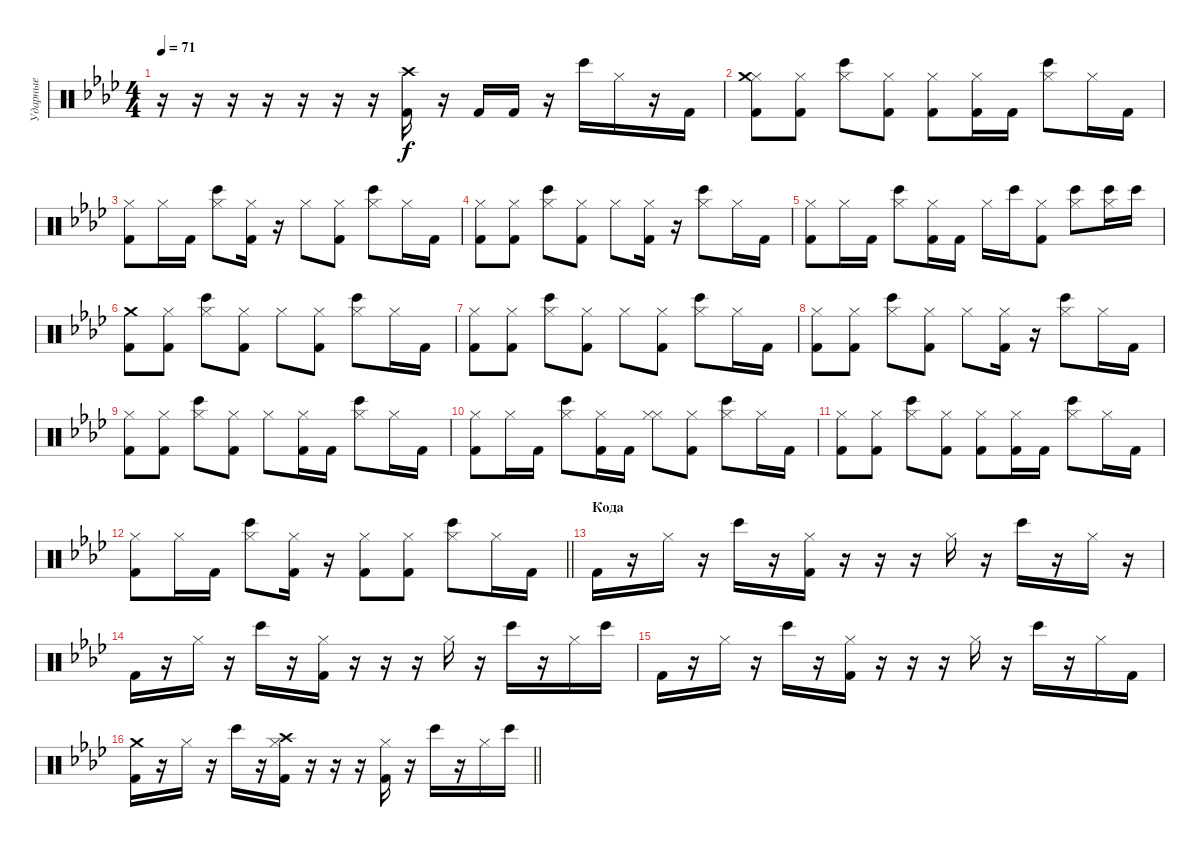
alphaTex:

\track ("Ударные" "Ударные") {instrument percussion}
\staff {score}
\articulation defaults
\ts (4 4)
\tempo 71
\clef neutral
\ks fminor
r.16{dy f} r.16 r.16 r.16 r.16 r.16 r.16 ("Crash high (hit)" "Kick (hit) 2").16 r.16 "Kick (hit) 2".16 "Kick (hit) 2".16 r.16 "Bongo High (hit)".16 "Hi-Hat (closed)".16 r.16 "Kick (hit) 2".16 |
("Hi-Hat (closed)" "Kick (hit) 2" "Crash medium (hit)").8 ("Hi-Hat (closed)" "Kick (hit) 2").8 ("Hi-Hat (closed)" "Bongo High (hit)").8 ("Hi-Hat (closed)" "Kick (hit) 2").8 ("Hi-Hat (closed)" "Kick (hit) 2").8 ("Hi-Hat (closed)" "Kick (hit) 2").16 "Kick (hit) 2".16 ("Hi-Hat (closed)" "Bongo High (hit)").8 "Hi-Hat (closed)".16 "Kick (hit) 2".16 |
("Hi-Hat (closed)" "Kick (hit) 2").8 "Hi-Hat (closed)".16 "Kick (hit) 2".16 ("Hi-Hat (closed)" "Bongo High (hit)").8 ("Hi-Hat (closed)" "Kick (hit) 2").16 r.16 "Hi-Hat (closed)".8 ("Hi-Hat (closed)" "Kick (hit) 2").8 ("Hi-Hat (closed)" "Bongo High (hit)").8 "Hi-Hat (closed)".16 "Kick (hit) 2".16 |
("Hi-Hat (closed)" "Kick (hit) 2").8 ("Hi-Hat (closed)" "Kick (hit) 2").8 ("Hi-Hat (closed)" "Bongo High (hit)").8 ("Hi-Hat (closed)" "Kick (hit) 2").8 "Hi-Hat (closed)".8 ("Hi-Hat (closed)" "Kick (hit) 2").16 r.16 ("Hi-Hat (closed)" "Bongo High (hit)").8 "Hi-Hat (closed)".16 "Kick (hit) 2".16 |
("Hi-Hat (closed)" "Kick (hit) 2").8 "Hi-Hat (closed)".16 "Kick (hit) 2".16 ("Hi-Hat (closed)" "Bongo High (hit)").8 ("Hi-Hat (closed)" "Kick (hit) 2").16 "Kick (hit) 2".16 "Hi-Hat (closed)".16 "Bongo High (hit)".16 ("Hi-Hat (closed)" "Kick (hit) 2").8 ("Hi-Hat (closed)" "Bongo High (hit)").8 ("Hi-Hat (closed)" "Bongo High (hit)").16 "Bongo High (hit)".16 |
("Crash medium (hit)" "Kick (hit) 2").8 ("Hi-Hat (closed)" "Kick (hit) 2").8 ("Hi-Hat (closed)" "Bongo High (hit)").8 ("Hi-Hat (closed)" "Kick (hit) 2").8 "Hi-Hat (closed)".8 ("Hi-Hat (closed)" "Kick (hit) 2").8 ("Hi-Hat (closed)" "Bongo High (hit)").8 "Hi-Hat (closed)".16 "Kick (hit) 2".16 |
("Hi-Hat (closed)" "Kick (hit) 2").8 ("Hi-Hat (closed)" "Kick (hit) 2").8 ("Hi-Hat (closed)" "Bongo High (hit)").8 ("Hi-Hat (closed)" "Kick (hit) 2").8 "Hi-Hat (closed)".8 ("Hi-Hat (closed)" "Kick (hit) 2").8 ("Hi-Hat (closed)" "Bongo High (hit)").8 "Hi-Hat (closed)".16 "Kick (hit) 2".16 |
("Hi-Hat (closed)" "Kick (hit) 2").8 ("Hi-Hat (closed)" "Kick (hit) 2").8 ("Hi-Hat (closed)" "Bongo High (hit)").8 ("Hi-Hat (closed)" "Kick (hit) 2").8 "Hi-Hat (closed)".8 ("Hi-Hat (closed)" "Kick (hit) 2").16 r.16 ("Hi-Hat (closed)" "Bongo High (hit)").8 "Hi-Hat (closed)".16 "Kick (hit) 2".16 |
("Hi-Hat (closed)" "Kick (hit) 2").8 ("Hi-Hat (closed)" "Kick (hit) 2").8 ("Hi-Hat (closed)" "Bongo High (hit)").8 ("Hi-Hat (closed)" "Kick (hit) 2").8 "Hi-Hat (closed)".8 ("Hi-Hat (closed)" "Kick (hit) 2").16 "Kick (hit) 2".16 ("Hi-Hat (closed)" "Bongo High (hit)").8 "Hi-Hat (closed)".16 "Kick (hit) 2".16 |
("Hi-Hat (closed)" "Kick (hit) 2").8 "Hi-Hat (closed)".16 "Kick (hit) 2".16 ("Hi-Hat (closed)" "Bongo High (hit)").8 ("Hi-Hat (closed)" "Kick (hit) 2").16 "Kick (hit) 2".16 ("Hi-Hat (closed)" "Hi-Hat (closed)").8 ("Hi-Hat (closed)" "Kick (hit) 2").8 ("Hi-Hat (closed)" "Bongo High (hit)").8 "Hi-Hat (closed)".16 "Kick (hit) 2".16 |
("Hi-Hat (closed)" "Kick (hit) 2").8 ("Hi-Hat (closed)" "Kick (hit) 2").8 ("Hi-Hat (closed)" "Bongo High (hit)").8 ("Hi-Hat (closed)" "Kick (hit) 2").8 ("Hi-Hat (closed)" "Kick (hit) 2").8 ("Hi-Hat (closed)" "Kick (hit) 2").16 "Kick (hit) 2".16 ("Hi-Hat (closed)" "Bongo High (hit)").8 "Hi-Hat (closed)".16 "Kick (hit) 2".16 |
\barLineRight lightlight
("Hi-Hat (closed)" "Kick (hit) 2").8 "Hi-Hat (closed)".16 "Kick (hit) 2".16 ("Hi-Hat (closed)" "Bongo High (hit)").8 ("Hi-Hat (closed)" "Kick (hit) 2").16 r.16 ("Hi-Hat (closed)" "Kick (hit) 2").8 ("Hi-Hat (closed)" "Kick (hit) 2").8 ("Hi-Hat (closed)" "Bongo High (hit)").8 "Hi-Hat (closed)".16 "Kick (hit) 2".16 |
\section ("" "Кода")
"Kick (hit) 2".16 r.16 "Hi-Hat (closed)".16 r.16 "Bongo High (hit)".16 r.16 ("Hi-Hat (closed)" "Kick (hit) 2").16 r.16 r.16 r.16 "Hi-Hat (closed)".16 r.16 "Bongo High (hit)".16 r.16 "Hi-Hat (closed)".16 r.16 |
"Kick (hit) 2".16 r.16 "Hi-Hat (closed)".16 r.16 "Bongo High (hit)".16 r.16 ("Hi-Hat (closed)" "Kick (hit) 2").16 r.16 r.16 r.16 "Hi-Hat (closed)".16 r.16 "Bongo High (hit)".16 r.16 "Hi-Hat (closed)".16 "Bongo High (hit)".16 |
"Kick (hit) 2".16 r.16 "Hi-Hat (closed)".16 r.16 "Bongo High (hit)".16 r.16 ("Hi-Hat (closed)" "Kick (hit) 2").16 r.16 r.16 r.16 "Hi-Hat (closed)".16 r.16 "Bongo High (hit)".16 r.16 "Hi-Hat (closed)".16 "Kick (hit) 2".16 |
\barLineRight lightlight
("Crash medium (hit)" "Kick (hit) 2").16 r.16 "Hi-Hat (closed)".16 r.16 "Bongo High (hit)".16 r.16 ("Hi-Hat (closed)" "Kick (hit) 2" "Crash high (hit)").16 r.16 r.16 r.16 ("Hi-Hat (closed)" "Kick (hit) 2").16 r.16 "Bongo High (hit)".16 r.16 "Hi-Hat (closed)".16 "Bongo High (hit)".16
